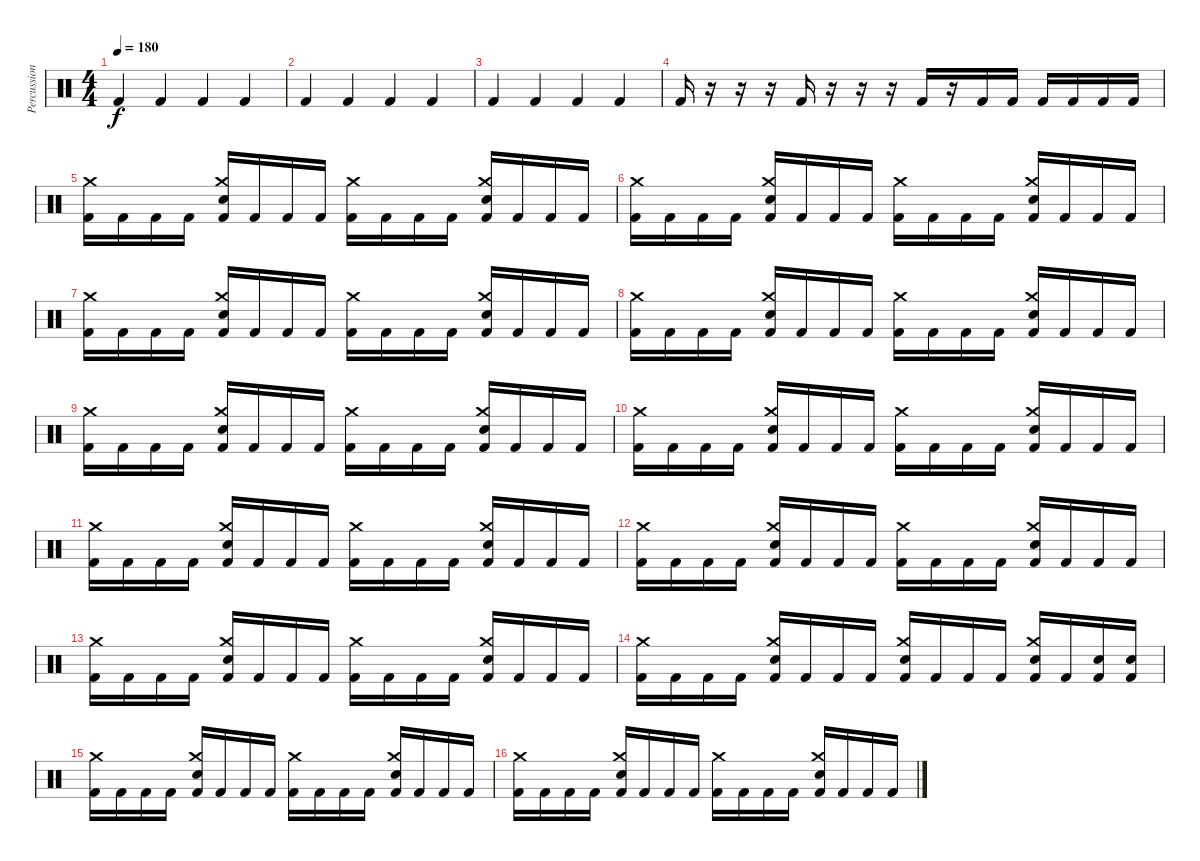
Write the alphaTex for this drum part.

\track ("Percussions" "Percussion") {instrument percussion}
\staff {score}
\articulation defaults
\ts (4 4)
\tempo 180
\clef neutral
\ks c "Kick (hit) 2".4{dy f} "Kick (hit) 2".4 "Kick (hit) 2".4 "Kick (hit) 2".4
|
"Kick (hit) 2".4 "Kick (hit) 2".4 "Kick (hit) 2".4 "Kick (hit) 2".4 |
"Kick (hit) 2".4 "Kick (hit) 2".4 "Kick (hit) 2".4 "Kick (hit) 2".4 |
"Kick (hit) 2".16 r.16 r.16 r.16 "Kick (hit) 2".16 r.16 r.16 r.16 "Kick (hit) 2".16 r.16 "Kick (hit) 2".16 "Kick (hit) 2".16 "Kick (hit) 2".16 "Kick (hit) 2".16 "Kick (hit) 2".16 "Kick (hit) 2".16 |
("Crash medium (hit)" "Kick (hit) 2").16 "Kick (hit) 2".16 "Kick (hit) 2".16 "Kick (hit) 2".16 ("Electric Snare (hit)" "Crash medium (hit)" "Kick (hit) 2").16 "Kick (hit) 2".16 "Kick (hit) 2".16 "Kick (hit) 2".16 ("Crash medium (hit)" "Kick (hit) 2").16 "Kick (hit) 2".16 "Kick (hit) 2".16 "Kick (hit) 2".16 ("Crash medium (hit)" "Electric Snare (hit)" "Kick (hit) 2").16 "Kick (hit) 2".16 "Kick (hit) 2".16 "Kick (hit) 2".16 |
("Crash medium (hit)" "Kick (hit) 2").16 "Kick (hit) 2".16 "Kick (hit) 2".16 "Kick (hit) 2".16 ("Electric Snare (hit)" "Crash medium (hit)" "Kick (hit) 2").16 "Kick (hit) 2".16 "Kick (hit) 2".16 "Kick (hit) 2".16 ("Crash medium (hit)" "Kick (hit) 2").16 "Kick (hit) 2".16 "Kick (hit) 2".16 "Kick (hit) 2".16 ("Crash medium (hit)" "Electric Snare (hit)" "Kick (hit) 2").16 "Kick (hit) 2".16 "Kick (hit) 2".16 "Kick (hit) 2".16 |
("Crash medium (hit)" "Kick (hit) 2").16 "Kick (hit) 2".16 "Kick (hit) 2".16 "Kick (hit) 2".16 ("Electric Snare (hit)" "Crash medium (hit)" "Kick (hit) 2").16 "Kick (hit) 2".16 "Kick (hit) 2".16 "Kick (hit) 2".16 ("Crash medium (hit)" "Kick (hit) 2").16 "Kick (hit) 2".16 "Kick (hit) 2".16 "Kick (hit) 2".16 ("Crash medium (hit)" "Electric Snare (hit)" "Kick (hit) 2").16 "Kick (hit) 2".16 "Kick (hit) 2".16 "Kick (hit) 2".16 |
("Crash medium (hit)" "Kick (hit) 2").16 "Kick (hit) 2".16 "Kick (hit) 2".16 "Kick (hit) 2".16 ("Electric Snare (hit)" "Crash medium (hit)" "Kick (hit) 2").16 "Kick (hit) 2".16 "Kick (hit) 2".16 "Kick (hit) 2".16 ("Crash medium (hit)" "Kick (hit) 2").16 "Kick (hit) 2".16 "Kick (hit) 2".16 "Kick (hit) 2".16 ("Crash medium (hit)" "Electric Snare (hit)" "Kick (hit) 2").16 "Kick (hit) 2".16 "Kick (hit) 2".16 "Kick (hit) 2".16 |
("Crash medium (hit)" "Kick (hit) 2").16 "Kick (hit) 2".16 "Kick (hit) 2".16 "Kick (hit) 2".16 ("Electric Snare (hit)" "Crash medium (hit)" "Kick (hit) 2").16 "Kick (hit) 2".16 "Kick (hit) 2".16 "Kick (hit) 2".16 ("Crash medium (hit)" "Kick (hit) 2").16 "Kick (hit) 2".16 "Kick (hit) 2".16 "Kick (hit) 2".16 ("Crash medium (hit)" "Electric Snare (hit)" "Kick (hit) 2").16 "Kick (hit) 2".16 "Kick (hit) 2".16 "Kick (hit) 2".16 |
("Crash medium (hit)" "Kick (hit) 2").16 "Kick (hit) 2".16 "Kick (hit) 2".16 "Kick (hit) 2".16 ("Electric Snare (hit)" "Crash medium (hit)" "Kick (hit) 2").16 "Kick (hit) 2".16 "Kick (hit) 2".16 "Kick (hit) 2".16 ("Crash medium (hit)" "Kick (hit) 2").16 "Kick (hit) 2".16 "Kick (hit) 2".16 "Kick (hit) 2".16 ("Crash medium (hit)" "Electric Snare (hit)" "Kick (hit) 2").16 "Kick (hit) 2".16 "Kick (hit) 2".16 "Kick (hit) 2".16 |
("Crash medium (hit)" "Kick (hit) 2").16 "Kick (hit) 2".16 "Kick (hit) 2".16 "Kick (hit) 2".16 ("Electric Snare (hit)" "Crash medium (hit)" "Kick (hit) 2").16 "Kick (hit) 2".16 "Kick (hit) 2".16 "Kick (hit) 2".16 ("Crash medium (hit)" "Kick (hit) 2").16 "Kick (hit) 2".16 "Kick (hit) 2".16 "Kick (hit) 2".16 ("Crash medium (hit)" "Electric Snare (hit)" "Kick (hit) 2").16 "Kick (hit) 2".16 "Kick (hit) 2".16 "Kick (hit) 2".16 |
("Crash medium (hit)" "Kick (hit) 2").16 "Kick (hit) 2".16 "Kick (hit) 2".16 "Kick (hit) 2".16 ("Electric Snare (hit)" "Crash medium (hit)" "Kick (hit) 2").16 "Kick (hit) 2".16 "Kick (hit) 2".16 "Kick (hit) 2".16 ("Crash medium (hit)" "Kick (hit) 2").16 "Kick (hit) 2".16 "Kick (hit) 2".16 "Kick (hit) 2".16 ("Crash medium (hit)" "Electric Snare (hit)" "Kick (hit) 2").16 "Kick (hit) 2".16 "Kick (hit) 2".16 "Kick (hit) 2".16 |
("Crash medium (hit)" "Kick (hit) 2").16 "Kick (hit) 2".16 "Kick (hit) 2".16 "Kick (hit) 2".16 ("Electric Snare (hit)" "Crash medium (hit)" "Kick (hit) 2").16 "Kick (hit) 2".16 "Kick (hit) 2".16 "Kick (hit) 2".16 ("Crash medium (hit)" "Kick (hit) 2").16 "Kick (hit) 2".16 "Kick (hit) 2".16 "Kick (hit) 2".16 ("Crash medium (hit)" "Electric Snare (hit)" "Kick (hit) 2").16 "Kick (hit) 2".16 "Kick (hit) 2".16 "Kick (hit) 2".16 |
("Crash medium (hit)" "Kick (hit) 2").16 "Kick (hit) 2".16 "Kick (hit) 2".16 "Kick (hit) 2".16 ("Electric Snare (hit)" "Crash medium (hit)" "Kick (hit) 2").16 "Kick (hit) 2".16 "Kick (hit) 2".16 "Kick (hit) 2".16 ("Electric Snare (hit)" "Crash medium (hit)" "Kick (hit) 2").16 "Kick (hit) 2".16 "Kick (hit) 2".16 "Kick (hit) 2".16 ("Crash medium (hit)" "Electric Snare (hit)" "Kick (hit) 2").16 "Kick (hit) 2".16 ("Electric Snare (hit)" "Kick (hit) 2").16 ("Electric Snare (hit)" "Kick (hit) 2").16 |
("Crash medium (hit)" "Kick (hit) 2").16 "Kick (hit) 2".16 "Kick (hit) 2".16 "Kick (hit) 2".16 ("Electric Snare (hit)" "Crash medium (hit)" "Kick (hit) 2").16 "Kick (hit) 2".16 "Kick (hit) 2".16 "Kick (hit) 2".16 ("Crash medium (hit)" "Kick (hit) 2").16 "Kick (hit) 2".16 "Kick (hit) 2".16 "Kick (hit) 2".16 ("Crash medium (hit)" "Electric Snare (hit)" "Kick (hit) 2").16 "Kick (hit) 2".16 "Kick (hit) 2".16 "Kick (hit) 2".16 |
("Crash medium (hit)" "Kick (hit) 2").16 "Kick (hit) 2".16 "Kick (hit) 2".16 "Kick (hit) 2".16 ("Electric Snare (hit)" "Crash medium (hit)" "Kick (hit) 2").16 "Kick (hit) 2".16 "Kick (hit) 2".16 "Kick (hit) 2".16 ("Crash medium (hit)" "Kick (hit) 2").16 "Kick (hit) 2".16 "Kick (hit) 2".16 "Kick (hit) 2".16 ("Crash medium (hit)" "Electric Snare (hit)" "Kick (hit) 2").16 "Kick (hit) 2".16 "Kick (hit) 2".16 "Kick (hit) 2".16
